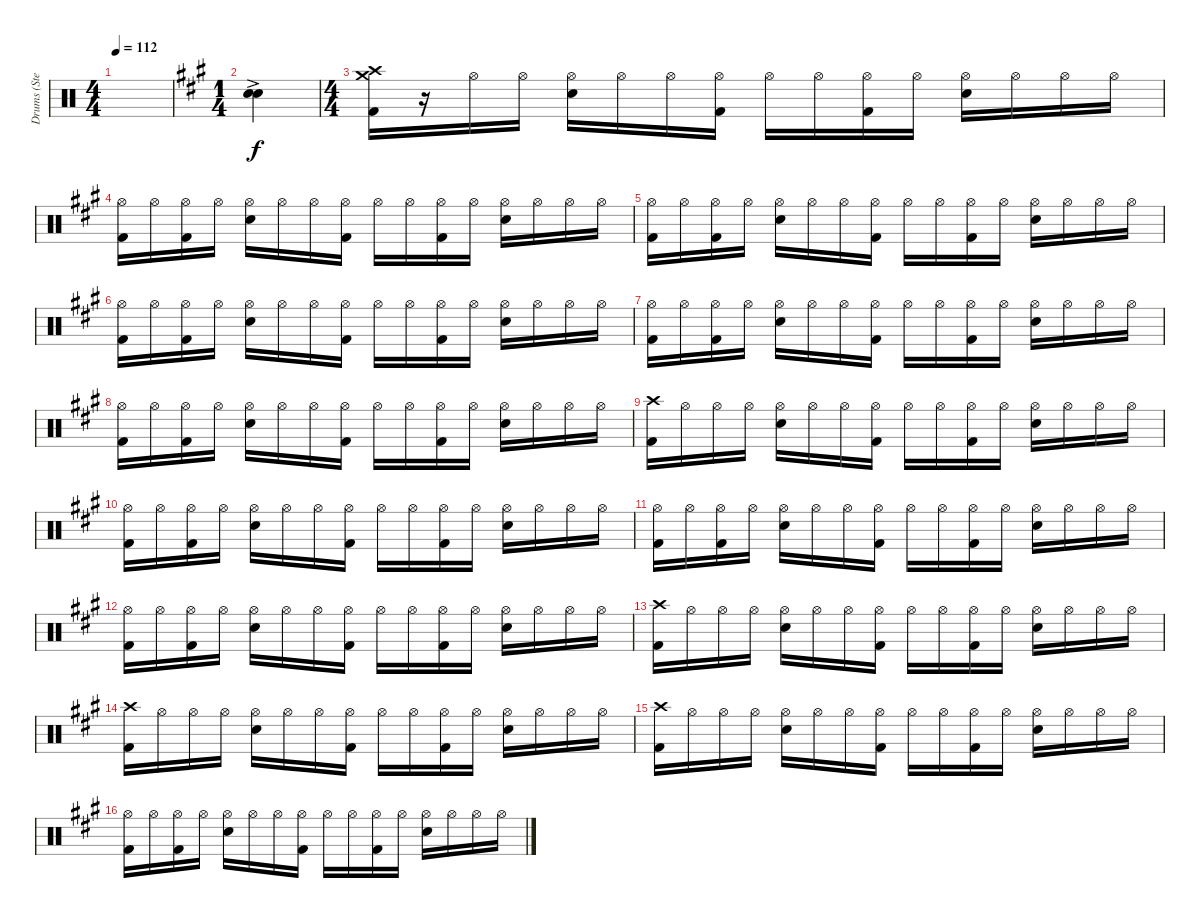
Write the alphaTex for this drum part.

\track ("Drums (Steven)" "Drums (Ste") {instrument percussion}
\staff {score}
\articulation defaults
\ts (4 4)
\tempo 112
\clef neutral
\ks c
|
\ts (1 4)
\ks f#minor
("Snare (hit) 2"{ac} "Snare (hit) 2"{ac}).4 |
\ts (4 4)
("Crash high (hit)" "Crash medium (hit)" "Kick (hit) 2").16{dy f} r.16 "Hi-Hat (open)".16 "Hi-Hat (open)".16 ("Hi-Hat (open)" "Snare (hit) 2").16 "Hi-Hat (open)".16 "Hi-Hat (open)".16 ("Hi-Hat (open)" "Kick (hit) 2").16 "Hi-Hat (open)".16 "Hi-Hat (open)".16 ("Hi-Hat (open)" "Kick (hit) 2").16 "Hi-Hat (open)".16 ("Hi-Hat (open)" "Snare (hit) 2").16 "Hi-Hat (open)".16 "Hi-Hat (open)".16 "Hi-Hat (open)".16 |
("Hi-Hat (open)" "Kick (hit) 2").16 "Hi-Hat (open)".16 ("Hi-Hat (open)" "Kick (hit) 2").16 "Hi-Hat (open)".16 ("Hi-Hat (open)" "Snare (hit) 2").16 "Hi-Hat (open)".16 "Hi-Hat (open)".16 ("Hi-Hat (open)" "Kick (hit) 2").16 "Hi-Hat (open)".16 "Hi-Hat (open)".16 ("Hi-Hat (open)" "Kick (hit) 2").16 "Hi-Hat (open)".16 ("Hi-Hat (open)" "Snare (hit) 2").16 "Hi-Hat (open)".16 "Hi-Hat (open)".16 "Hi-Hat (open)".16 |
("Hi-Hat (open)" "Kick (hit) 2").16 "Hi-Hat (open)".16 ("Hi-Hat (open)" "Kick (hit) 2").16 "Hi-Hat (open)".16 ("Hi-Hat (open)" "Snare (hit) 2").16 "Hi-Hat (open)".16 "Hi-Hat (open)".16 ("Hi-Hat (open)" "Kick (hit) 2").16 "Hi-Hat (open)".16 "Hi-Hat (open)".16 ("Hi-Hat (open)" "Kick (hit) 2").16 "Hi-Hat (open)".16 ("Hi-Hat (open)" "Snare (hit) 2").16 "Hi-Hat (open)".16 "Hi-Hat (open)".16 "Hi-Hat (open)".16 |
("Hi-Hat (open)" "Kick (hit) 2").16 "Hi-Hat (open)".16 ("Hi-Hat (open)" "Kick (hit) 2").16 "Hi-Hat (open)".16 ("Hi-Hat (open)" "Snare (hit) 2").16 "Hi-Hat (open)".16 "Hi-Hat (open)".16 ("Hi-Hat (open)" "Kick (hit) 2").16 "Hi-Hat (open)".16 "Hi-Hat (open)".16 ("Hi-Hat (open)" "Kick (hit) 2").16 "Hi-Hat (open)".16 ("Hi-Hat (open)" "Snare (hit) 2").16 "Hi-Hat (open)".16 "Hi-Hat (open)".16 "Hi-Hat (open)".16 |
("Hi-Hat (open)" "Kick (hit) 2").16 "Hi-Hat (open)".16 ("Hi-Hat (open)" "Kick (hit) 2").16 "Hi-Hat (open)".16 ("Hi-Hat (open)" "Snare (hit) 2").16 "Hi-Hat (open)".16 "Hi-Hat (open)".16 ("Hi-Hat (open)" "Kick (hit) 2").16 "Hi-Hat (open)".16 "Hi-Hat (open)".16 ("Hi-Hat (open)" "Kick (hit) 2").16 "Hi-Hat (open)".16 ("Hi-Hat (open)" "Snare (hit) 2").16 "Hi-Hat (open)".16 "Hi-Hat (open)".16 "Hi-Hat (open)".16 |
("Hi-Hat (open)" "Kick (hit) 2").16 "Hi-Hat (open)".16 ("Hi-Hat (open)" "Kick (hit) 2").16 "Hi-Hat (open)".16 ("Hi-Hat (open)" "Snare (hit) 2").16 "Hi-Hat (open)".16 "Hi-Hat (open)".16 ("Hi-Hat (open)" "Kick (hit) 2").16 "Hi-Hat (open)".16 "Hi-Hat (open)".16 ("Hi-Hat (open)" "Kick (hit) 2").16 "Hi-Hat (open)".16 ("Hi-Hat (open)" "Snare (hit) 2").16 "Hi-Hat (open)".16 "Hi-Hat (open)".16 "Hi-Hat (open)".16 |
("Crash high (hit)" "Kick (hit) 2").16 "Hi-Hat (open)".16 "Hi-Hat (open)".16 "Hi-Hat (open)".16 ("Hi-Hat (open)" "Snare (hit) 2").16 "Hi-Hat (open)".16 "Hi-Hat (open)".16 ("Hi-Hat (open)" "Kick (hit) 2").16 "Hi-Hat (open)".16 "Hi-Hat (open)".16 ("Hi-Hat (open)" "Kick (hit) 2").16 "Hi-Hat (open)".16 ("Hi-Hat (open)" "Snare (hit) 2").16 "Hi-Hat (open)".16 "Hi-Hat (open)".16 "Hi-Hat (open)".16 |
("Hi-Hat (open)" "Kick (hit) 2").16 "Hi-Hat (open)".16 ("Hi-Hat (open)" "Kick (hit) 2").16 "Hi-Hat (open)".16 ("Hi-Hat (open)" "Snare (hit) 2").16 "Hi-Hat (open)".16 "Hi-Hat (open)".16 ("Hi-Hat (open)" "Kick (hit) 2").16 "Hi-Hat (open)".16 "Hi-Hat (open)".16 ("Hi-Hat (open)" "Kick (hit) 2").16 "Hi-Hat (open)".16 ("Hi-Hat (open)" "Snare (hit) 2").16 "Hi-Hat (open)".16 "Hi-Hat (open)".16 "Hi-Hat (open)".16 |
("Hi-Hat (open)" "Kick (hit) 2").16 "Hi-Hat (open)".16 ("Hi-Hat (open)" "Kick (hit) 2").16 "Hi-Hat (open)".16 ("Hi-Hat (open)" "Snare (hit) 2").16 "Hi-Hat (open)".16 "Hi-Hat (open)".16 ("Hi-Hat (open)" "Kick (hit) 2").16 "Hi-Hat (open)".16 "Hi-Hat (open)".16 ("Hi-Hat (open)" "Kick (hit) 2").16 "Hi-Hat (open)".16 ("Hi-Hat (open)" "Snare (hit) 2").16 "Hi-Hat (open)".16 "Hi-Hat (open)".16 "Hi-Hat (open)".16 |
("Hi-Hat (open)" "Kick (hit) 2").16 "Hi-Hat (open)".16 ("Hi-Hat (open)" "Kick (hit) 2").16 "Hi-Hat (open)".16 ("Hi-Hat (open)" "Snare (hit) 2").16 "Hi-Hat (open)".16 "Hi-Hat (open)".16 ("Hi-Hat (open)" "Kick (hit) 2").16 "Hi-Hat (open)".16 "Hi-Hat (open)".16 ("Hi-Hat (open)" "Kick (hit) 2").16 "Hi-Hat (open)".16 ("Hi-Hat (open)" "Snare (hit) 2").16 "Hi-Hat (open)".16 "Hi-Hat (open)".16 "Hi-Hat (open)".16 |
("Crash high (hit)" "Kick (hit) 2").16 "Hi-Hat (open)".16 "Hi-Hat (open)".16 "Hi-Hat (open)".16 ("Hi-Hat (open)" "Snare (hit) 2").16 "Hi-Hat (open)".16 "Hi-Hat (open)".16 ("Hi-Hat (open)" "Kick (hit) 2").16 "Hi-Hat (open)".16 "Hi-Hat (open)".16 ("Hi-Hat (open)" "Kick (hit) 2").16 "Hi-Hat (open)".16 ("Hi-Hat (open)" "Snare (hit) 2").16 "Hi-Hat (open)".16 "Hi-Hat (open)".16 "Hi-Hat (open)".16 |
("Crash high (hit)" "Kick (hit) 2").16 "Hi-Hat (open)".16 "Hi-Hat (open)".16 "Hi-Hat (open)".16 ("Hi-Hat (open)" "Snare (hit) 2").16 "Hi-Hat (open)".16 "Hi-Hat (open)".16 ("Hi-Hat (open)" "Kick (hit) 2").16 "Hi-Hat (open)".16 "Hi-Hat (open)".16 ("Hi-Hat (open)" "Kick (hit) 2").16 "Hi-Hat (open)".16 ("Hi-Hat (open)" "Snare (hit) 2").16 "Hi-Hat (open)".16 "Hi-Hat (open)".16 "Hi-Hat (open)".16 |
("Crash high (hit)" "Kick (hit) 2").16 "Hi-Hat (open)".16 "Hi-Hat (open)".16 "Hi-Hat (open)".16 ("Hi-Hat (open)" "Snare (hit) 2").16 "Hi-Hat (open)".16 "Hi-Hat (open)".16 ("Hi-Hat (open)" "Kick (hit) 2").16 "Hi-Hat (open)".16 "Hi-Hat (open)".16 ("Hi-Hat (open)" "Kick (hit) 2").16 "Hi-Hat (open)".16 ("Hi-Hat (open)" "Snare (hit) 2").16 "Hi-Hat (open)".16 "Hi-Hat (open)".16 "Hi-Hat (open)".16 |
("Hi-Hat (open)" "Kick (hit) 2").16 "Hi-Hat (open)".16 ("Hi-Hat (open)" "Kick (hit) 2").16 "Hi-Hat (open)".16 ("Hi-Hat (open)" "Snare (hit) 2").16 "Hi-Hat (open)".16 "Hi-Hat (open)".16 ("Hi-Hat (open)" "Kick (hit) 2").16 "Hi-Hat (open)".16 "Hi-Hat (open)".16 ("Hi-Hat (open)" "Kick (hit) 2").16 "Hi-Hat (open)".16 ("Hi-Hat (open)" "Snare (hit) 2").16 "Hi-Hat (open)".16 "Hi-Hat (open)".16 "Hi-Hat (open)".16
